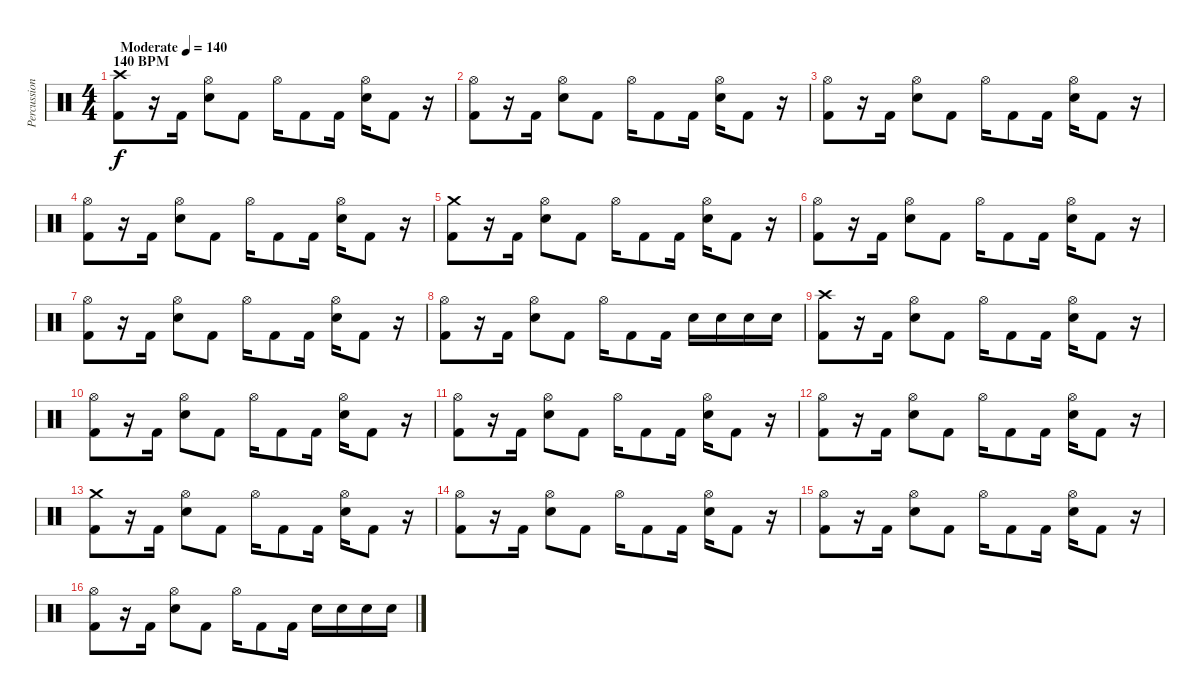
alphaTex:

\track ("Percussion" "Percussion") {instrument percussion}
\staff {score}
\articulation defaults
\ts (4 4)
\section ("" "140 BPM")
\tempo (140 "Moderate")
\clef neutral
\ks c
("Crash high (hit)" "Kick (hit) 2").8{dy f} r.16 "Kick (hit) 2".16 ("Hi-Hat (open)" "Electric Snare (hit)").8 "Kick (hit) 2".8 "Hi-Hat (open)".16 "Kick (hit) 2".8 "Kick (hit) 2".16 ("Hi-Hat (open)" "Electric Snare (hit)").16 "Kick (hit) 2".8 r.16 |
("Hi-Hat (open)" "Kick (hit) 2").8 r.16 "Kick (hit) 2".16 ("Hi-Hat (open)" "Electric Snare (hit)").8 "Kick (hit) 2".8 "Hi-Hat (open)".16 "Kick (hit) 2".8 "Kick (hit) 2".16 ("Hi-Hat (open)" "Electric Snare (hit)").16 "Kick (hit) 2".8 r.16 |
("Hi-Hat (open)" "Kick (hit) 2").8 r.16 "Kick (hit) 2".16 ("Hi-Hat (open)" "Electric Snare (hit)").8 "Kick (hit) 2".8 "Hi-Hat (open)".16 "Kick (hit) 2".8 "Kick (hit) 2".16 ("Hi-Hat (open)" "Electric Snare (hit)").16 "Kick (hit) 2".8 r.16 |
("Hi-Hat (open)" "Kick (hit) 2").8 r.16 "Kick (hit) 2".16 ("Hi-Hat (open)" "Electric Snare (hit)").8 "Kick (hit) 2".8 "Hi-Hat (open)".16 "Kick (hit) 2".8 "Kick (hit) 2".16 ("Hi-Hat (open)" "Electric Snare (hit)").16 "Kick (hit) 2".8 r.16 |
("Crash medium (hit)" "Kick (hit) 2").8 r.16 "Kick (hit) 2".16 ("Hi-Hat (open)" "Electric Snare (hit)").8 "Kick (hit) 2".8 "Hi-Hat (open)".16 "Kick (hit) 2".8 "Kick (hit) 2".16 ("Hi-Hat (open)" "Electric Snare (hit)").16 "Kick (hit) 2".8 r.16 |
("Hi-Hat (open)" "Kick (hit) 2").8 r.16 "Kick (hit) 2".16 ("Hi-Hat (open)" "Electric Snare (hit)").8 "Kick (hit) 2".8 "Hi-Hat (open)".16 "Kick (hit) 2".8 "Kick (hit) 2".16 ("Hi-Hat (open)" "Electric Snare (hit)").16 "Kick (hit) 2".8 r.16 |
("Hi-Hat (open)" "Kick (hit) 2").8 r.16 "Kick (hit) 2".16 ("Hi-Hat (open)" "Electric Snare (hit)").8 "Kick (hit) 2".8 "Hi-Hat (open)".16 "Kick (hit) 2".8 "Kick (hit) 2".16 ("Hi-Hat (open)" "Electric Snare (hit)").16 "Kick (hit) 2".8 r.16 |
("Hi-Hat (open)" "Kick (hit) 2").8 r.16 "Kick (hit) 2".16 ("Hi-Hat (open)" "Electric Snare (hit)").8 "Kick (hit) 2".8 "Hi-Hat (open)".16 "Kick (hit) 2".8 "Kick (hit) 2".16 "Electric Snare (hit)".16 "Electric Snare (hit)".16 "Electric Snare (hit)".16 "Electric Snare (hit)".16 |
("Crash high (hit)" "Kick (hit) 2").8 r.16 "Kick (hit) 2".16 ("Hi-Hat (open)" "Electric Snare (hit)").8 "Kick (hit) 2".8 "Hi-Hat (open)".16 "Kick (hit) 2".8 "Kick (hit) 2".16 ("Hi-Hat (open)" "Electric Snare (hit)").16 "Kick (hit) 2".8 r.16 |
("Hi-Hat (open)" "Kick (hit) 2").8 r.16 "Kick (hit) 2".16 ("Hi-Hat (open)" "Electric Snare (hit)").8 "Kick (hit) 2".8 "Hi-Hat (open)".16 "Kick (hit) 2".8 "Kick (hit) 2".16 ("Hi-Hat (open)" "Electric Snare (hit)").16 "Kick (hit) 2".8 r.16 |
("Hi-Hat (open)" "Kick (hit) 2").8 r.16 "Kick (hit) 2".16 ("Hi-Hat (open)" "Electric Snare (hit)").8 "Kick (hit) 2".8 "Hi-Hat (open)".16 "Kick (hit) 2".8 "Kick (hit) 2".16 ("Hi-Hat (open)" "Electric Snare (hit)").16 "Kick (hit) 2".8 r.16 |
("Hi-Hat (open)" "Kick (hit) 2").8 r.16 "Kick (hit) 2".16 ("Hi-Hat (open)" "Electric Snare (hit)").8 "Kick (hit) 2".8 "Hi-Hat (open)".16 "Kick (hit) 2".8 "Kick (hit) 2".16 ("Hi-Hat (open)" "Electric Snare (hit)").16 "Kick (hit) 2".8 r.16 |
("Crash medium (hit)" "Kick (hit) 2").8 r.16 "Kick (hit) 2".16 ("Hi-Hat (open)" "Electric Snare (hit)").8 "Kick (hit) 2".8 "Hi-Hat (open)".16 "Kick (hit) 2".8 "Kick (hit) 2".16 ("Hi-Hat (open)" "Electric Snare (hit)").16 "Kick (hit) 2".8 r.16 |
("Hi-Hat (open)" "Kick (hit) 2").8 r.16 "Kick (hit) 2".16 ("Hi-Hat (open)" "Electric Snare (hit)").8 "Kick (hit) 2".8 "Hi-Hat (open)".16 "Kick (hit) 2".8 "Kick (hit) 2".16 ("Hi-Hat (open)" "Electric Snare (hit)").16 "Kick (hit) 2".8 r.16 |
("Hi-Hat (open)" "Kick (hit) 2").8 r.16 "Kick (hit) 2".16 ("Hi-Hat (open)" "Electric Snare (hit)").8 "Kick (hit) 2".8 "Hi-Hat (open)".16 "Kick (hit) 2".8 "Kick (hit) 2".16 ("Hi-Hat (open)" "Electric Snare (hit)").16 "Kick (hit) 2".8 r.16 |
("Hi-Hat (open)" "Kick (hit) 2").8 r.16 "Kick (hit) 2".16 ("Hi-Hat (open)" "Electric Snare (hit)").8 "Kick (hit) 2".8 "Hi-Hat (open)".16 "Kick (hit) 2".8 "Kick (hit) 2".16 "Electric Snare (hit)".16 "Electric Snare (hit)".16 "Electric Snare (hit)".16 "Electric Snare (hit)".16
